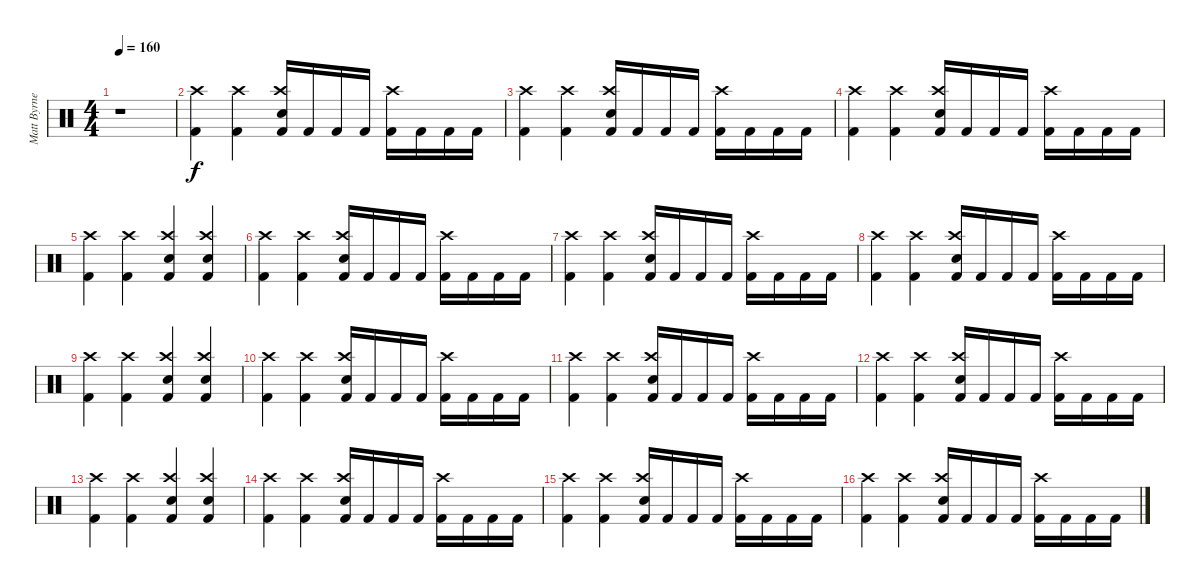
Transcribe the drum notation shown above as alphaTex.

\track ("Matt Byrne" "Matt Byrne") {instrument percussion}
\staff {score}
\articulation defaults
\ts (4 4)
\tempo 160
\clef neutral
\ks c
r.1{dy f} |
\section ("" "")
("Kick (hit) 2" "Crash high (hit)").4 ("Kick (hit) 2" "Crash high (hit)").4 ("Kick (hit) 2" "Crash high (hit)" "Snare (hit) 2").16 "Kick (hit) 2".16 "Kick (hit) 2".16 "Kick (hit) 2".16 ("Kick (hit) 2" "Crash high (hit)").16 "Kick (hit) 2".16 "Kick (hit) 2".16 "Kick (hit) 2".16 |
("Kick (hit) 2" "Crash high (hit)").4 ("Kick (hit) 2" "Crash high (hit)").4 ("Kick (hit) 2" "Crash high (hit)" "Snare (hit) 2").16 "Kick (hit) 2".16 "Kick (hit) 2".16 "Kick (hit) 2".16 ("Kick (hit) 2" "Crash high (hit)").16 "Kick (hit) 2".16 "Kick (hit) 2".16 "Kick (hit) 2".16 |
("Kick (hit) 2" "Crash high (hit)").4 ("Kick (hit) 2" "Crash high (hit)").4 ("Kick (hit) 2" "Crash high (hit)" "Snare (hit) 2").16 "Kick (hit) 2".16 "Kick (hit) 2".16 "Kick (hit) 2".16 ("Kick (hit) 2" "Crash high (hit)").16 "Kick (hit) 2".16 "Kick (hit) 2".16 "Kick (hit) 2".16 |
("Kick (hit) 2" "Crash high (hit)").4 ("Kick (hit) 2" "Crash high (hit)").4 ("Kick (hit) 2" "Crash high (hit)" "Snare (hit) 2").4 ("Kick (hit) 2" "Crash high (hit)" "Snare (hit) 2").4 |
("Kick (hit) 2" "Crash high (hit)").4 ("Kick (hit) 2" "Crash high (hit)").4 ("Kick (hit) 2" "Crash high (hit)" "Snare (hit) 2").16 "Kick (hit) 2".16 "Kick (hit) 2".16 "Kick (hit) 2".16 ("Kick (hit) 2" "Crash high (hit)").16 "Kick (hit) 2".16 "Kick (hit) 2".16 "Kick (hit) 2".16 |
("Kick (hit) 2" "Crash high (hit)").4 ("Kick (hit) 2" "Crash high (hit)").4 ("Kick (hit) 2" "Crash high (hit)" "Snare (hit) 2").16 "Kick (hit) 2".16 "Kick (hit) 2".16 "Kick (hit) 2".16 ("Kick (hit) 2" "Crash high (hit)").16 "Kick (hit) 2".16 "Kick (hit) 2".16 "Kick (hit) 2".16 |
("Kick (hit) 2" "Crash high (hit)").4 ("Kick (hit) 2" "Crash high (hit)").4 ("Kick (hit) 2" "Crash high (hit)" "Snare (hit) 2").16 "Kick (hit) 2".16 "Kick (hit) 2".16 "Kick (hit) 2".16 ("Kick (hit) 2" "Crash high (hit)").16 "Kick (hit) 2".16 "Kick (hit) 2".16 "Kick (hit) 2".16 |
("Kick (hit) 2" "Crash high (hit)").4 ("Kick (hit) 2" "Crash high (hit)").4 ("Kick (hit) 2" "Crash high (hit)" "Snare (hit) 2").4 ("Kick (hit) 2" "Crash high (hit)" "Snare (hit) 2").4 |
("Kick (hit) 2" "Crash high (hit)").4 ("Kick (hit) 2" "Crash high (hit)").4 ("Kick (hit) 2" "Crash high (hit)" "Snare (hit) 2").16 "Kick (hit) 2".16 "Kick (hit) 2".16 "Kick (hit) 2".16 ("Kick (hit) 2" "Crash high (hit)").16 "Kick (hit) 2".16 "Kick (hit) 2".16 "Kick (hit) 2".16 |
("Kick (hit) 2" "Crash high (hit)").4 ("Kick (hit) 2" "Crash high (hit)").4 ("Kick (hit) 2" "Crash high (hit)" "Snare (hit) 2").16 "Kick (hit) 2".16 "Kick (hit) 2".16 "Kick (hit) 2".16 ("Kick (hit) 2" "Crash high (hit)").16 "Kick (hit) 2".16 "Kick (hit) 2".16 "Kick (hit) 2".16 |
("Kick (hit) 2" "Crash high (hit)").4 ("Kick (hit) 2" "Crash high (hit)").4 ("Kick (hit) 2" "Crash high (hit)" "Snare (hit) 2").16 "Kick (hit) 2".16 "Kick (hit) 2".16 "Kick (hit) 2".16 ("Kick (hit) 2" "Crash high (hit)").16 "Kick (hit) 2".16 "Kick (hit) 2".16 "Kick (hit) 2".16 |
("Kick (hit) 2" "Crash high (hit)").4 ("Kick (hit) 2" "Crash high (hit)").4 ("Kick (hit) 2" "Crash high (hit)" "Snare (hit) 2").4 ("Kick (hit) 2" "Crash high (hit)" "Snare (hit) 2").4 |
("Kick (hit) 2" "Crash high (hit)").4 ("Kick (hit) 2" "Crash high (hit)").4 ("Kick (hit) 2" "Crash high (hit)" "Snare (hit) 2").16 "Kick (hit) 2".16 "Kick (hit) 2".16 "Kick (hit) 2".16 ("Kick (hit) 2" "Crash high (hit)").16 "Kick (hit) 2".16 "Kick (hit) 2".16 "Kick (hit) 2".16 |
("Kick (hit) 2" "Crash high (hit)").4 ("Kick (hit) 2" "Crash high (hit)").4 ("Kick (hit) 2" "Crash high (hit)" "Snare (hit) 2").16 "Kick (hit) 2".16 "Kick (hit) 2".16 "Kick (hit) 2".16 ("Kick (hit) 2" "Crash high (hit)").16 "Kick (hit) 2".16 "Kick (hit) 2".16 "Kick (hit) 2".16 |
("Kick (hit) 2" "Crash high (hit)").4 ("Kick (hit) 2" "Crash high (hit)").4 ("Kick (hit) 2" "Crash high (hit)" "Snare (hit) 2").16 "Kick (hit) 2".16 "Kick (hit) 2".16 "Kick (hit) 2".16 ("Kick (hit) 2" "Crash high (hit)").16 "Kick (hit) 2".16 "Kick (hit) 2".16 "Kick (hit) 2".16
